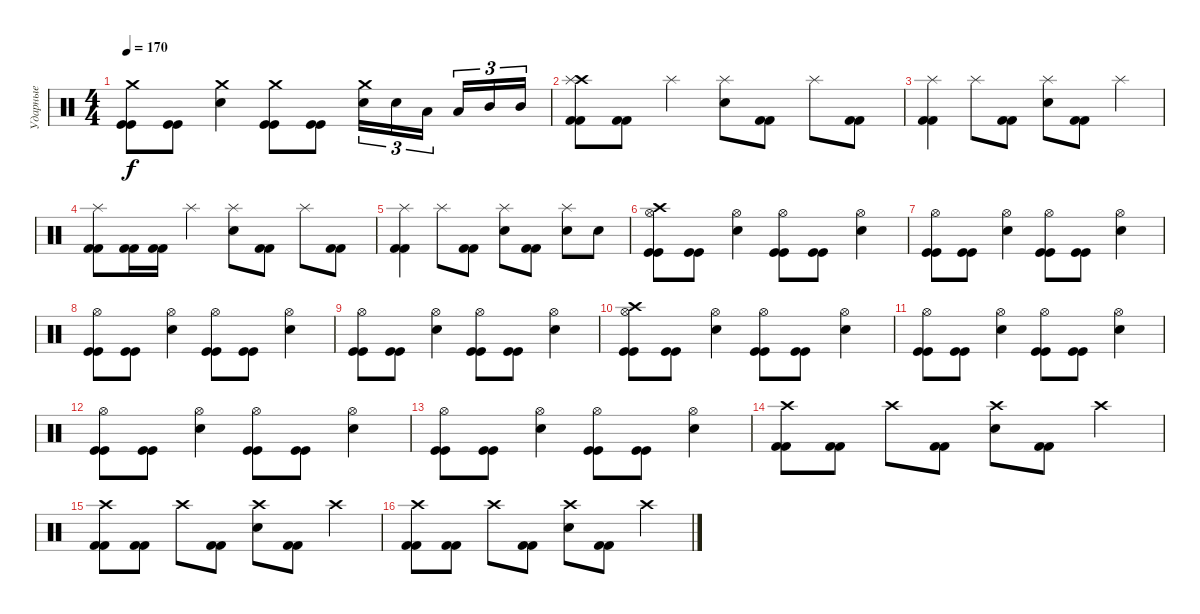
\track ("Ударные" "Ударные") {instrument percussion}
\staff {score}
\articulation defaults
\ts (4 4)
\tempo 170
\clef neutral
\ks c
("Crash medium (hit)" "Kick (hit)" "Kick (hit)").8{dy f} ("Kick (hit)" "Kick (hit)").8 ("Crash medium (hit)" "Electric Snare (hit)").4 ("Crash medium (hit)" "Kick (hit)" "Kick (hit)").8 ("Kick (hit)" "Kick (hit)").8 ("Crash medium (hit)" "Electric Snare (hit)").16{tu (3 2)} "Electric Snare (hit)".16{tu (3 2)} "Low Tom (hit)".16{tu (3 2) beam splitsecondary} "Low Tom (hit)".16{tu (3 2)} "Mid Tom (hit)".16{tu (3 2)} "Mid Tom (hit)".16{tu (3 2)} |
("Crash high (hit)" "Splash (hit)" "Kick (hit) 2" "Kick (hit) 2").8 ("Kick (hit) 2" "Kick (hit) 2").8 "Splash (hit)".4 ("Splash (hit)" "Electric Snare (hit)").8 ("Kick (hit) 2" "Kick (hit) 2").8 "Splash (hit)".8 ("Kick (hit) 2" "Kick (hit) 2").8 |
("Splash (hit)" "Kick (hit) 2" "Kick (hit) 2").4 "Splash (hit)".8 ("Kick (hit) 2" "Kick (hit) 2").8 ("Splash (hit)" "Electric Snare (hit)").8 ("Kick (hit) 2" "Kick (hit) 2").8 "Splash (hit)".4 |
("Splash (hit)" "Kick (hit) 2" "Kick (hit) 2").8 ("Kick (hit) 2" "Kick (hit) 2").16 ("Kick (hit) 2" "Kick (hit) 2").16 "Splash (hit)".4 ("Splash (hit)" "Electric Snare (hit)").8 ("Kick (hit) 2" "Kick (hit) 2").8 "Splash (hit)".8 ("Kick (hit) 2" "Kick (hit) 2").8 |
("Splash (hit)" "Kick (hit) 2" "Kick (hit) 2").4 "Splash (hit)".8 ("Kick (hit) 2" "Kick (hit) 2").8 ("Splash (hit)" "Electric Snare (hit)").8 ("Kick (hit) 2" "Kick (hit) 2").8 ("Splash (hit)" "Electric Snare (hit)").8 "Electric Snare (hit)".8 |
("Crash high (hit)" "Hi-Hat (open)" "Kick (hit)" "Kick (hit)").8 ("Kick (hit)" "Kick (hit)").8 ("Hi-Hat (open)" "Electric Snare (hit)").4 ("Hi-Hat (open)" "Kick (hit)" "Kick (hit)").8 ("Kick (hit)" "Kick (hit)").8 ("Hi-Hat (open)" "Electric Snare (hit)").4 |
("Hi-Hat (open)" "Kick (hit)" "Kick (hit)").8 ("Kick (hit)" "Kick (hit)").8 ("Hi-Hat (open)" "Electric Snare (hit)").4 ("Hi-Hat (open)" "Kick (hit)" "Kick (hit)").8 ("Kick (hit)" "Kick (hit)").8 ("Hi-Hat (open)" "Electric Snare (hit)").4 |
("Hi-Hat (open)" "Kick (hit)" "Kick (hit)").8 ("Kick (hit)" "Kick (hit)").8 ("Hi-Hat (open)" "Electric Snare (hit)").4 ("Hi-Hat (open)" "Kick (hit)" "Kick (hit)").8 ("Kick (hit)" "Kick (hit)").8 ("Hi-Hat (open)" "Electric Snare (hit)").4 |
("Hi-Hat (open)" "Kick (hit)" "Kick (hit)").8 ("Kick (hit)" "Kick (hit)").8 ("Hi-Hat (open)" "Electric Snare (hit)").4 ("Hi-Hat (open)" "Kick (hit)" "Kick (hit)").8 ("Kick (hit)" "Kick (hit)").8 ("Hi-Hat (open)" "Electric Snare (hit)").4 |
("Crash high (hit)" "Hi-Hat (open)" "Kick (hit)" "Kick (hit)").8 ("Kick (hit)" "Kick (hit)").8 ("Hi-Hat (open)" "Electric Snare (hit)").4 ("Hi-Hat (open)" "Kick (hit)" "Kick (hit)").8 ("Kick (hit)" "Kick (hit)").8 ("Hi-Hat (open)" "Electric Snare (hit)").4 |
("Hi-Hat (open)" "Kick (hit)" "Kick (hit)").8 ("Kick (hit)" "Kick (hit)").8 ("Hi-Hat (open)" "Electric Snare (hit)").4 ("Hi-Hat (open)" "Kick (hit)" "Kick (hit)").8 ("Kick (hit)" "Kick (hit)").8 ("Hi-Hat (open)" "Electric Snare (hit)").4 |
("Hi-Hat (open)" "Kick (hit)" "Kick (hit)").8 ("Kick (hit)" "Kick (hit)").8 ("Hi-Hat (open)" "Electric Snare (hit)").4 ("Hi-Hat (open)" "Kick (hit)" "Kick (hit)").8 ("Kick (hit)" "Kick (hit)").8 ("Hi-Hat (open)" "Electric Snare (hit)").4 |
("Hi-Hat (open)" "Kick (hit)" "Kick (hit)").8 ("Kick (hit)" "Kick (hit)").8 ("Hi-Hat (open)" "Electric Snare (hit)").4 ("Hi-Hat (open)" "Kick (hit)" "Kick (hit)").8 ("Kick (hit)" "Kick (hit)").8 ("Hi-Hat (open)" "Electric Snare (hit)").4 |
("Crash high (hit)" "Kick (hit) 2" "Kick (hit) 2").8 ("Kick (hit) 2" "Kick (hit) 2").8 "Crash high (hit)".8 ("Kick (hit) 2" "Kick (hit) 2").8 ("Crash high (hit)" "Electric Snare (hit)").8 ("Kick (hit) 2" "Kick (hit) 2").8 "Crash high (hit)".4 |
("Crash high (hit)" "Kick (hit) 2" "Kick (hit) 2").8 ("Kick (hit) 2" "Kick (hit) 2").8 "Crash high (hit)".8 ("Kick (hit) 2" "Kick (hit) 2").8 ("Crash high (hit)" "Electric Snare (hit)").8 ("Kick (hit) 2" "Kick (hit) 2").8 "Crash high (hit)".4 |
("Crash high (hit)" "Kick (hit) 2" "Kick (hit) 2").8 ("Kick (hit) 2" "Kick (hit) 2").8 "Crash high (hit)".8 ("Kick (hit) 2" "Kick (hit) 2").8 ("Crash high (hit)" "Electric Snare (hit)").8 ("Kick (hit) 2" "Kick (hit) 2").8 "Crash high (hit)".4
